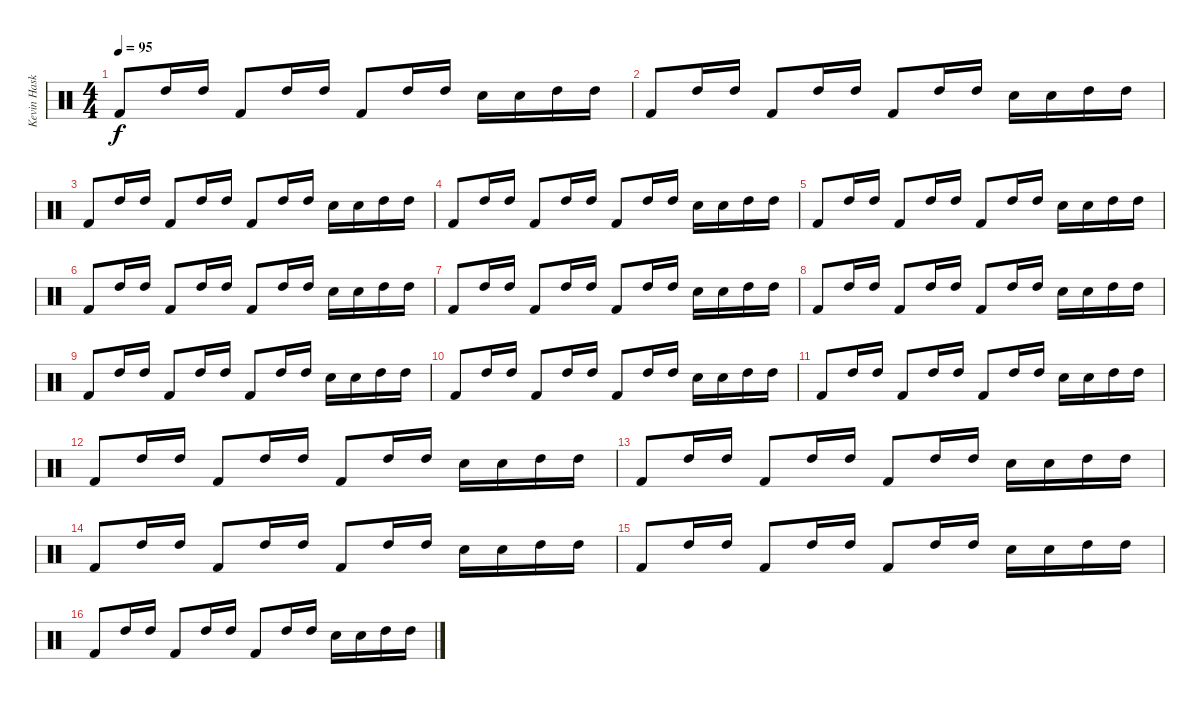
\track ("Kevin Haskins" "Kevin Hask") {instrument percussion}
\staff {score}
\articulation defaults
\ts (4 4)
\tempo 95
\clef neutral
\ks c "Kick (hit) 2".8{dy f} "High Tom (hit)".16 "High Tom (hit)".16 "Kick (hit) 2".8 "High Tom (hit)".16 "High Tom (hit)".16 "Kick (hit) 2".8 "High Tom (hit)".16 "High Tom (hit)".16 "Electric Snare (hit)".16 "Electric Snare (hit)".16 "High Tom (hit)".16 "High Tom (hit)".16
|
"Kick (hit) 2".8 "High Tom (hit)".16 "High Tom (hit)".16 "Kick (hit) 2".8 "High Tom (hit)".16 "High Tom (hit)".16 "Kick (hit) 2".8 "High Tom (hit)".16 "High Tom (hit)".16 "Electric Snare (hit)".16 "Electric Snare (hit)".16 "High Tom (hit)".16 "High Tom (hit)".16 |
"Kick (hit) 2".8 "High Tom (hit)".16 "High Tom (hit)".16 "Kick (hit) 2".8 "High Tom (hit)".16 "High Tom (hit)".16 "Kick (hit) 2".8 "High Tom (hit)".16 "High Tom (hit)".16 "Electric Snare (hit)".16 "Electric Snare (hit)".16 "High Tom (hit)".16 "High Tom (hit)".16 |
"Kick (hit) 2".8 "High Tom (hit)".16 "High Tom (hit)".16 "Kick (hit) 2".8 "High Tom (hit)".16 "High Tom (hit)".16 "Kick (hit) 2".8 "High Tom (hit)".16 "High Tom (hit)".16 "Electric Snare (hit)".16 "Electric Snare (hit)".16 "High Tom (hit)".16 "High Tom (hit)".16 |
"Kick (hit) 2".8 "High Tom (hit)".16 "High Tom (hit)".16 "Kick (hit) 2".8 "High Tom (hit)".16 "High Tom (hit)".16 "Kick (hit) 2".8 "High Tom (hit)".16 "High Tom (hit)".16 "Electric Snare (hit)".16 "Electric Snare (hit)".16 "High Tom (hit)".16 "High Tom (hit)".16 |
"Kick (hit) 2".8 "High Tom (hit)".16 "High Tom (hit)".16 "Kick (hit) 2".8 "High Tom (hit)".16 "High Tom (hit)".16 "Kick (hit) 2".8 "High Tom (hit)".16 "High Tom (hit)".16 "Electric Snare (hit)".16 "Electric Snare (hit)".16 "High Tom (hit)".16 "High Tom (hit)".16 |
"Kick (hit) 2".8 "High Tom (hit)".16 "High Tom (hit)".16 "Kick (hit) 2".8 "High Tom (hit)".16 "High Tom (hit)".16 "Kick (hit) 2".8 "High Tom (hit)".16 "High Tom (hit)".16 "Electric Snare (hit)".16 "Electric Snare (hit)".16 "High Tom (hit)".16 "High Tom (hit)".16 |
"Kick (hit) 2".8 "High Tom (hit)".16 "High Tom (hit)".16 "Kick (hit) 2".8 "High Tom (hit)".16 "High Tom (hit)".16 "Kick (hit) 2".8 "High Tom (hit)".16 "High Tom (hit)".16 "Electric Snare (hit)".16 "Electric Snare (hit)".16 "High Tom (hit)".16 "High Tom (hit)".16 |
"Kick (hit) 2".8 "High Tom (hit)".16 "High Tom (hit)".16 "Kick (hit) 2".8 "High Tom (hit)".16 "High Tom (hit)".16 "Kick (hit) 2".8 "High Tom (hit)".16 "High Tom (hit)".16 "Electric Snare (hit)".16 "Electric Snare (hit)".16 "High Tom (hit)".16 "High Tom (hit)".16 |
"Kick (hit) 2".8 "High Tom (hit)".16 "High Tom (hit)".16 "Kick (hit) 2".8 "High Tom (hit)".16 "High Tom (hit)".16 "Kick (hit) 2".8 "High Tom (hit)".16 "High Tom (hit)".16 "Electric Snare (hit)".16 "Electric Snare (hit)".16 "High Tom (hit)".16 "High Tom (hit)".16 |
"Kick (hit) 2".8 "High Tom (hit)".16 "High Tom (hit)".16 "Kick (hit) 2".8 "High Tom (hit)".16 "High Tom (hit)".16 "Kick (hit) 2".8 "High Tom (hit)".16 "High Tom (hit)".16 "Electric Snare (hit)".16 "Electric Snare (hit)".16 "High Tom (hit)".16 "High Tom (hit)".16 |
"Kick (hit) 2".8 "High Tom (hit)".16 "High Tom (hit)".16 "Kick (hit) 2".8 "High Tom (hit)".16 "High Tom (hit)".16 "Kick (hit) 2".8 "High Tom (hit)".16 "High Tom (hit)".16 "Electric Snare (hit)".16 "Electric Snare (hit)".16 "High Tom (hit)".16 "High Tom (hit)".16 |
"Kick (hit) 2".8 "High Tom (hit)".16 "High Tom (hit)".16 "Kick (hit) 2".8 "High Tom (hit)".16 "High Tom (hit)".16 "Kick (hit) 2".8 "High Tom (hit)".16 "High Tom (hit)".16 "Electric Snare (hit)".16 "Electric Snare (hit)".16 "High Tom (hit)".16 "High Tom (hit)".16 |
"Kick (hit) 2".8 "High Tom (hit)".16 "High Tom (hit)".16 "Kick (hit) 2".8 "High Tom (hit)".16 "High Tom (hit)".16 "Kick (hit) 2".8 "High Tom (hit)".16 "High Tom (hit)".16 "Electric Snare (hit)".16 "Electric Snare (hit)".16 "High Tom (hit)".16 "High Tom (hit)".16 |
"Kick (hit) 2".8 "High Tom (hit)".16 "High Tom (hit)".16 "Kick (hit) 2".8 "High Tom (hit)".16 "High Tom (hit)".16 "Kick (hit) 2".8 "High Tom (hit)".16 "High Tom (hit)".16 "Electric Snare (hit)".16 "Electric Snare (hit)".16 "High Tom (hit)".16 "High Tom (hit)".16 |
"Kick (hit) 2".8 "High Tom (hit)".16 "High Tom (hit)".16 "Kick (hit) 2".8 "High Tom (hit)".16 "High Tom (hit)".16 "Kick (hit) 2".8 "High Tom (hit)".16 "High Tom (hit)".16 "Electric Snare (hit)".16 "Electric Snare (hit)".16 "High Tom (hit)".16 "High Tom (hit)".16
